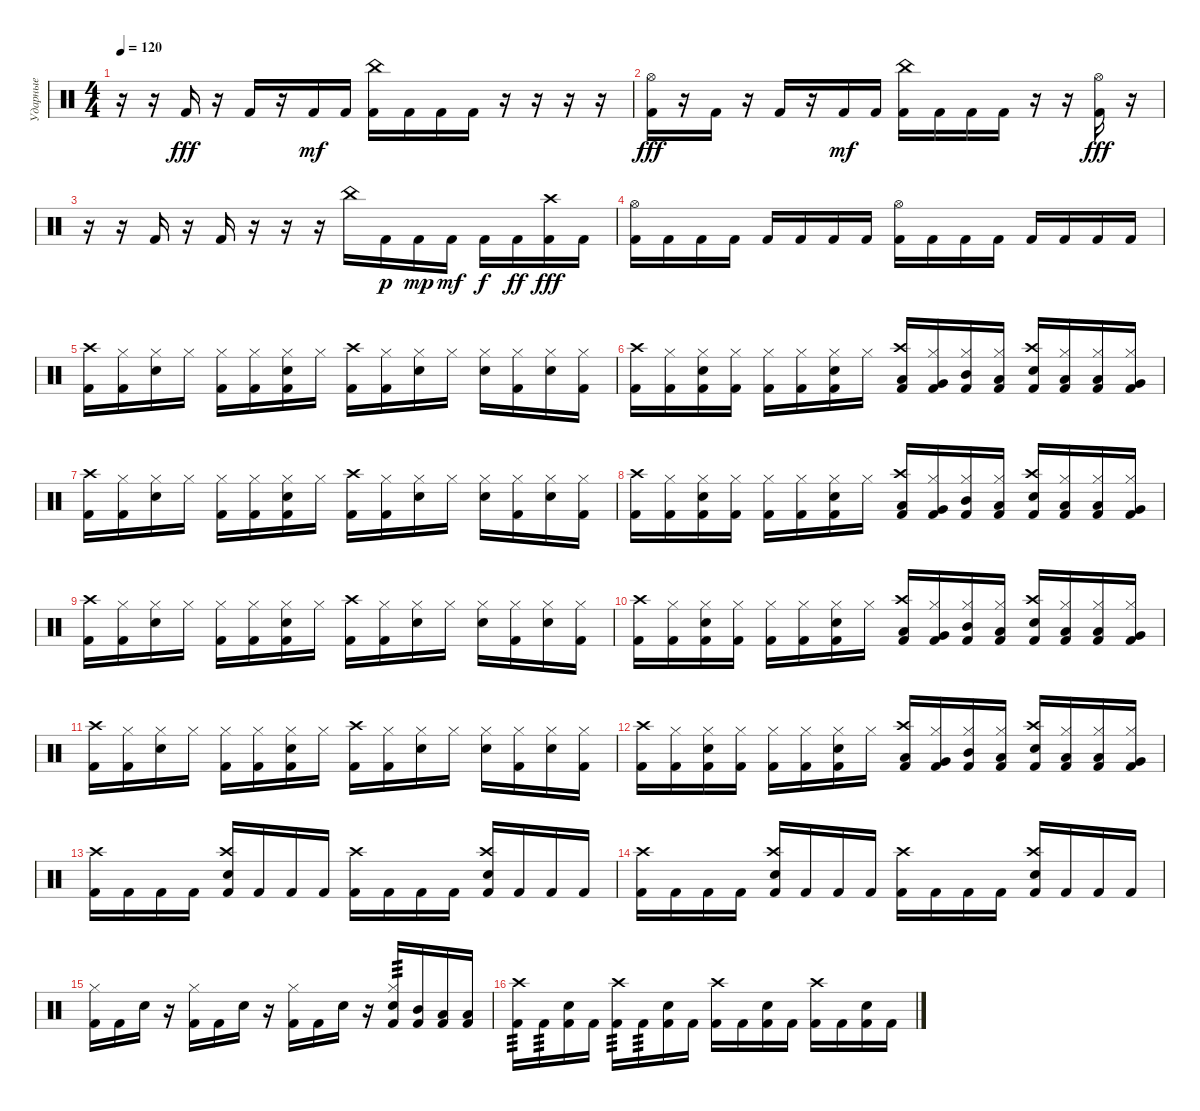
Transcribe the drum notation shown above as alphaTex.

\track ("Ударные" "Ударные") {instrument percussion}
\staff {score}
\articulation defaults
\ts (4 4)
\tempo 120
\clef neutral
\ks c
r.16{dy fff} r.16 "Kick (hit) 2".16 r.16 "Kick (hit) 2".16 r.16 "Kick (hit) 2".16{dy mf} "Kick (hit) 2".16 ("China (hit)" "Kick (hit) 2").16 "Kick (hit) 2".16 "Kick (hit) 2".16 "Kick (hit) 2".16 r.16 r.16 r.16 r.16 |
("Hi-Hat (open)" "Kick (hit) 2").16{dy fff} r.16 "Kick (hit) 2".16 r.16 "Kick (hit) 2".16 r.16 "Kick (hit) 2".16{dy mf} "Kick (hit) 2".16 ("China (hit)" "Kick (hit) 2").16 "Kick (hit) 2".16 "Kick (hit) 2".16 "Kick (hit) 2".16 r.16 r.16 ("Hi-Hat (open)" "Kick (hit) 2").16{dy fff} r.16 |
r.16 r.16 "Kick (hit) 2".16 r.16 "Kick (hit) 2".16 r.16 r.16 r.16 "China (hit)".16 "Kick (hit) 2".16{dy p} "Kick (hit) 2".16{dy mp} "Kick (hit) 2".16{dy mf} "Kick (hit) 2".16{dy f} "Kick (hit) 2".16{dy ff} ("Crash high (hit)" "Kick (hit) 2").16{dy fff} "Kick (hit) 2".16 |
("Hi-Hat (open)" "Kick (hit) 2").16 "Kick (hit) 2".16 "Kick (hit) 2".16 "Kick (hit) 2".16 "Kick (hit) 2".16 "Kick (hit) 2".16 "Kick (hit) 2".16 "Kick (hit) 2".16 ("Hi-Hat (open)" "Kick (hit) 2").16 "Kick (hit) 2".16 "Kick (hit) 2".16 "Kick (hit) 2".16 "Kick (hit) 2".16 "Kick (hit) 2".16 "Kick (hit) 2".16 "Kick (hit) 2".16 |
("Crash high (hit)" "Kick (hit) 2").16 ("Hi-Hat (closed)" "Kick (hit) 2").16 ("Hi-Hat (closed)" "Snare (hit) 2").16 "Hi-Hat (closed)".16 ("Hi-Hat (closed)" "Kick (hit) 2").16 ("Hi-Hat (closed)" "Kick (hit) 2").16 ("Hi-Hat (closed)" "Snare (hit) 2" "Kick (hit) 2").16 "Hi-Hat (closed)".16 ("Crash high (hit)" "Kick (hit) 2").16 ("Hi-Hat (closed)" "Kick (hit) 2").16 ("Hi-Hat (closed)" "Snare (hit) 2").16 "Hi-Hat (closed)".16 ("Hi-Hat (closed)" "Snare (hit) 2").16 ("Hi-Hat (closed)" "Kick (hit) 2").16 ("Hi-Hat (closed)" "Snare (hit) 2").16 ("Hi-Hat (closed)" "Kick (hit) 2").16 |
("Crash high (hit)" "Kick (hit) 2").16 ("Hi-Hat (closed)" "Kick (hit) 2").16 ("Hi-Hat (closed)" "Snare (hit) 2" "Kick (hit) 2").16 ("Hi-Hat (closed)" "Kick (hit) 2").16 ("Hi-Hat (closed)" "Kick (hit) 2").16 ("Hi-Hat (closed)" "Kick (hit) 2").16 ("Hi-Hat (closed)" "Snare (hit) 2" "Kick (hit) 2").16 "Hi-Hat (closed)".16 ("Crash high (hit)" "Low Tom (hit)" "Kick (hit) 2").16 ("Hi-Hat (closed)" "Very Low Tom (hit)" "Kick (hit) 2").16 ("Hi-Hat (closed)" "Mid Tom (hit)" "Kick (hit) 2").16 ("Hi-Hat (closed)" "Low Floor Tom (hit)" "Kick (hit) 2").16 ("Crash high (hit)" "Snare (hit) 2" "Kick (hit) 2").16 ("Hi-Hat (closed)" "Low Tom (hit)" "Kick (hit) 2").16 ("Hi-Hat (closed)" "Low Floor Tom (hit)" "Kick (hit) 2").16 ("Hi-Hat (closed)" "Very Low Tom (hit)" "Kick (hit) 2").16 |
("Crash high (hit)" "Kick (hit) 2").16 ("Hi-Hat (closed)" "Kick (hit) 2").16 ("Hi-Hat (closed)" "Snare (hit) 2").16 "Hi-Hat (closed)".16 ("Hi-Hat (closed)" "Kick (hit) 2").16 ("Hi-Hat (closed)" "Kick (hit) 2").16 ("Hi-Hat (closed)" "Snare (hit) 2" "Kick (hit) 2").16 "Hi-Hat (closed)".16 ("Crash high (hit)" "Kick (hit) 2").16 ("Hi-Hat (closed)" "Kick (hit) 2").16 ("Hi-Hat (closed)" "Snare (hit) 2").16 "Hi-Hat (closed)".16 ("Hi-Hat (closed)" "Snare (hit) 2").16 ("Hi-Hat (closed)" "Kick (hit) 2").16 ("Hi-Hat (closed)" "Snare (hit) 2").16 ("Hi-Hat (closed)" "Kick (hit) 2").16 |
("Crash high (hit)" "Kick (hit) 2").16 ("Hi-Hat (closed)" "Kick (hit) 2").16 ("Hi-Hat (closed)" "Snare (hit) 2" "Kick (hit) 2").16 ("Hi-Hat (closed)" "Kick (hit) 2").16 ("Hi-Hat (closed)" "Kick (hit) 2").16 ("Hi-Hat (closed)" "Kick (hit) 2").16 ("Hi-Hat (closed)" "Snare (hit) 2" "Kick (hit) 2").16 "Hi-Hat (closed)".16 ("Crash high (hit)" "Low Tom (hit)" "Kick (hit) 2").16 ("Hi-Hat (closed)" "Very Low Tom (hit)" "Kick (hit) 2").16 ("Hi-Hat (closed)" "Mid Tom (hit)" "Kick (hit) 2").16 ("Hi-Hat (closed)" "Low Floor Tom (hit)" "Kick (hit) 2").16 ("Crash high (hit)" "Snare (hit) 2" "Kick (hit) 2").16 ("Hi-Hat (closed)" "Low Tom (hit)" "Kick (hit) 2").16 ("Hi-Hat (closed)" "Low Floor Tom (hit)" "Kick (hit) 2").16 ("Hi-Hat (closed)" "Very Low Tom (hit)" "Kick (hit) 2").16 |
("Crash high (hit)" "Kick (hit) 2").16 ("Hi-Hat (closed)" "Kick (hit) 2").16 ("Hi-Hat (closed)" "Snare (hit) 2").16 "Hi-Hat (closed)".16 ("Hi-Hat (closed)" "Kick (hit) 2").16 ("Hi-Hat (closed)" "Kick (hit) 2").16 ("Hi-Hat (closed)" "Snare (hit) 2" "Kick (hit) 2").16 "Hi-Hat (closed)".16 ("Crash high (hit)" "Kick (hit) 2").16 ("Hi-Hat (closed)" "Kick (hit) 2").16 ("Hi-Hat (closed)" "Snare (hit) 2").16 "Hi-Hat (closed)".16 ("Hi-Hat (closed)" "Snare (hit) 2").16 ("Hi-Hat (closed)" "Kick (hit) 2").16 ("Hi-Hat (closed)" "Snare (hit) 2").16 ("Hi-Hat (closed)" "Kick (hit) 2").16 |
("Crash high (hit)" "Kick (hit) 2").16 ("Hi-Hat (closed)" "Kick (hit) 2").16 ("Hi-Hat (closed)" "Snare (hit) 2" "Kick (hit) 2").16 ("Hi-Hat (closed)" "Kick (hit) 2").16 ("Hi-Hat (closed)" "Kick (hit) 2").16 ("Hi-Hat (closed)" "Kick (hit) 2").16 ("Hi-Hat (closed)" "Snare (hit) 2" "Kick (hit) 2").16 "Hi-Hat (closed)".16 ("Crash high (hit)" "Low Tom (hit)" "Kick (hit) 2").16 ("Hi-Hat (closed)" "Very Low Tom (hit)" "Kick (hit) 2").16 ("Hi-Hat (closed)" "Mid Tom (hit)" "Kick (hit) 2").16 ("Hi-Hat (closed)" "Low Floor Tom (hit)" "Kick (hit) 2").16 ("Crash high (hit)" "Snare (hit) 2" "Kick (hit) 2").16 ("Hi-Hat (closed)" "Low Tom (hit)" "Kick (hit) 2").16 ("Hi-Hat (closed)" "Low Floor Tom (hit)" "Kick (hit) 2").16 ("Hi-Hat (closed)" "Very Low Tom (hit)" "Kick (hit) 2").16 |
("Crash high (hit)" "Kick (hit) 2").16 ("Hi-Hat (closed)" "Kick (hit) 2").16 ("Hi-Hat (closed)" "Snare (hit) 2").16 "Hi-Hat (closed)".16 ("Hi-Hat (closed)" "Kick (hit) 2").16 ("Hi-Hat (closed)" "Kick (hit) 2").16 ("Hi-Hat (closed)" "Snare (hit) 2" "Kick (hit) 2").16 "Hi-Hat (closed)".16 ("Crash high (hit)" "Kick (hit) 2").16 ("Hi-Hat (closed)" "Kick (hit) 2").16 ("Hi-Hat (closed)" "Snare (hit) 2").16 "Hi-Hat (closed)".16 ("Hi-Hat (closed)" "Snare (hit) 2").16 ("Hi-Hat (closed)" "Kick (hit) 2").16 ("Hi-Hat (closed)" "Snare (hit) 2").16 ("Hi-Hat (closed)" "Kick (hit) 2").16 |
("Crash high (hit)" "Kick (hit) 2").16 ("Hi-Hat (closed)" "Kick (hit) 2").16 ("Hi-Hat (closed)" "Snare (hit) 2" "Kick (hit) 2").16 ("Hi-Hat (closed)" "Kick (hit) 2").16 ("Hi-Hat (closed)" "Kick (hit) 2").16 ("Hi-Hat (closed)" "Kick (hit) 2").16 ("Hi-Hat (closed)" "Snare (hit) 2" "Kick (hit) 2").16 "Hi-Hat (closed)".16 ("Crash high (hit)" "Low Tom (hit)" "Kick (hit) 2").16 ("Hi-Hat (closed)" "Very Low Tom (hit)" "Kick (hit) 2").16 ("Hi-Hat (closed)" "Mid Tom (hit)" "Kick (hit) 2").16 ("Hi-Hat (closed)" "Low Floor Tom (hit)" "Kick (hit) 2").16 ("Crash high (hit)" "Snare (hit) 2" "Kick (hit) 2").16 ("Hi-Hat (closed)" "Low Tom (hit)" "Kick (hit) 2").16 ("Hi-Hat (closed)" "Low Floor Tom (hit)" "Kick (hit) 2").16 ("Hi-Hat (closed)" "Very Low Tom (hit)" "Kick (hit) 2").16 |
("Crash high (hit)" "Kick (hit) 2").16 "Kick (hit) 2".16 "Kick (hit) 2".16 "Kick (hit) 2".16 ("Crash high (hit)" "Snare (hit) 2" "Kick (hit) 2").16 "Kick (hit) 2".16 "Kick (hit) 2".16 "Kick (hit) 2".16 ("Crash high (hit)" "Kick (hit) 2").16 "Kick (hit) 2".16 "Kick (hit) 2".16 "Kick (hit) 2".16 ("Crash high (hit)" "Snare (hit) 2" "Kick (hit) 2").16 "Kick (hit) 2".16 "Kick (hit) 2".16 "Kick (hit) 2".16 |
("Crash high (hit)" "Kick (hit) 2").16 "Kick (hit) 2".16 "Kick (hit) 2".16 "Kick (hit) 2".16 ("Crash high (hit)" "Snare (hit) 2" "Kick (hit) 2").16 "Kick (hit) 2".16 "Kick (hit) 2".16 "Kick (hit) 2".16 ("Crash high (hit)" "Kick (hit) 2").16 "Kick (hit) 2".16 "Kick (hit) 2".16 "Kick (hit) 2".16 ("Crash high (hit)" "Snare (hit) 2" "Kick (hit) 2").16 "Kick (hit) 2".16 "Kick (hit) 2".16 "Kick (hit) 2".16 |
("Hi-Hat (closed)" "Kick (hit) 2").16 "Kick (hit) 2".16 "Snare (hit) 2".16 r.16 ("Hi-Hat (closed)" "Kick (hit) 2").16 "Kick (hit) 2".16 "Snare (hit) 2".16 r.16 ("Hi-Hat (closed)" "Kick (hit) 2").16 "Kick (hit) 2".16 "Snare (hit) 2".16 r.16 ("Hi-Hat (closed)" "Snare (hit) 2" "Kick (hit) 2").16{tp 3} ("Mid Tom (hit)" "Kick (hit) 2").16 ("Low Tom (hit)" "Kick (hit) 2").16 ("Low Floor Tom (hit)" "Kick (hit) 2").16 |
("Crash high (hit)" "Kick (hit) 2").16{tp 3} "Kick (hit) 2".16{tp 3} ("Snare (hit) 2" "Kick (hit) 2").16 "Kick (hit) 2".16 ("Crash high (hit)" "Kick (hit) 2").16{tp 3} "Kick (hit) 2".16{tp 3} ("Snare (hit) 2" "Kick (hit) 2").16 "Kick (hit) 2".16 ("Crash high (hit)" "Kick (hit) 2").16 "Kick (hit) 2".16 ("Snare (hit) 2" "Kick (hit) 2").16 "Kick (hit) 2".16 ("Crash high (hit)" "Kick (hit) 2").16 "Kick (hit) 2".16 ("Snare (hit) 2" "Kick (hit) 2").16 "Kick (hit) 2".16
